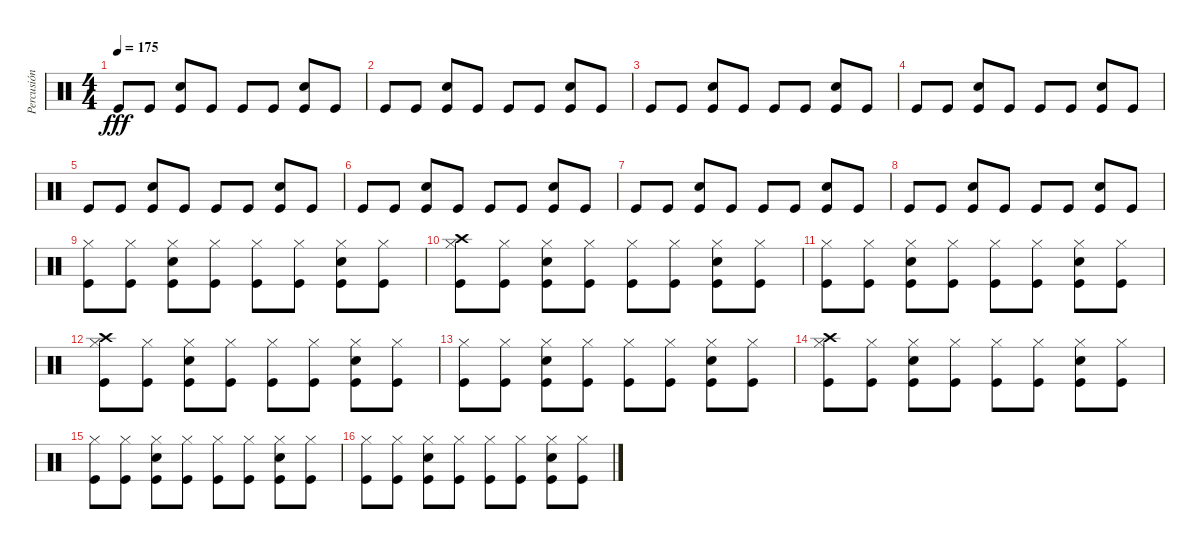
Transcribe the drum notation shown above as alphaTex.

\track ("Percusión" "Percusión") {instrument percussion}
\staff {score}
\articulation defaults
\ts (4 4)
\tempo 175
\clef neutral
\ks c "Kick (hit)".8{dy fff} "Kick (hit)".8
("Snare (hit) 2" "Kick (hit)").8 "Kick (hit)".8 "Kick (hit)".8 "Kick (hit)".8 ("Snare (hit) 2" "Kick (hit)").8 "Kick (hit)".8 |
"Kick (hit)".8 "Kick (hit)".8 ("Snare (hit) 2" "Kick (hit)").8 "Kick (hit)".8 "Kick (hit)".8 "Kick (hit)".8 ("Snare (hit) 2" "Kick (hit)").8 "Kick (hit)".8 |
"Kick (hit)".8 "Kick (hit)".8 ("Snare (hit) 2" "Kick (hit)").8 "Kick (hit)".8 "Kick (hit)".8 "Kick (hit)".8 ("Snare (hit) 2" "Kick (hit)").8 "Kick (hit)".8 |
"Kick (hit)".8 "Kick (hit)".8 ("Snare (hit) 2" "Kick (hit)").8 "Kick (hit)".8 "Kick (hit)".8 "Kick (hit)".8 ("Snare (hit) 2" "Kick (hit)").8 "Kick (hit)".8 |
"Kick (hit)".8 "Kick (hit)".8 ("Snare (hit) 2" "Kick (hit)").8 "Kick (hit)".8 "Kick (hit)".8 "Kick (hit)".8 ("Snare (hit) 2" "Kick (hit)").8 "Kick (hit)".8 |
"Kick (hit)".8 "Kick (hit)".8 ("Snare (hit) 2" "Kick (hit)").8 "Kick (hit)".8 "Kick (hit)".8 "Kick (hit)".8 ("Snare (hit) 2" "Kick (hit)").8 "Kick (hit)".8 |
"Kick (hit)".8 "Kick (hit)".8 ("Snare (hit) 2" "Kick (hit)").8 "Kick (hit)".8 "Kick (hit)".8 "Kick (hit)".8 ("Snare (hit) 2" "Kick (hit)").8 "Kick (hit)".8 |
"Kick (hit)".8 "Kick (hit)".8 ("Snare (hit) 2" "Kick (hit)").8 "Kick (hit)".8 "Kick (hit)".8 "Kick (hit)".8 ("Snare (hit) 2" "Kick (hit)").8 "Kick (hit)".8 |
("Kick (hit)" "Hi-Hat (closed)").8 ("Kick (hit)" "Hi-Hat (closed)").8 ("Snare (hit) 2" "Kick (hit)" "Hi-Hat (closed)").8 ("Kick (hit)" "Hi-Hat (closed)").8 ("Kick (hit)" "Hi-Hat (closed)").8 ("Kick (hit)" "Hi-Hat (closed)").8 ("Snare (hit) 2" "Kick (hit)" "Hi-Hat (closed)").8 ("Kick (hit)" "Hi-Hat (closed)").8 |
("Kick (hit)" "Crash high (hit)" "Hi-Hat (closed)").8 ("Kick (hit)" "Hi-Hat (closed)").8 ("Kick (hit)" "Snare (hit) 2" "Hi-Hat (closed)").8 ("Hi-Hat (closed)" "Kick (hit)").8 ("Kick (hit)" "Hi-Hat (closed)").8 ("Kick (hit)" "Hi-Hat (closed)").8 ("Snare (hit) 2" "Kick (hit)" "Hi-Hat (closed)").8 ("Kick (hit)" "Hi-Hat (closed)").8 |
("Kick (hit)" "Hi-Hat (closed)").8 ("Kick (hit)" "Hi-Hat (closed)").8 ("Snare (hit) 2" "Kick (hit)" "Hi-Hat (closed)").8 ("Kick (hit)" "Hi-Hat (closed)").8 ("Kick (hit)" "Hi-Hat (closed)").8 ("Kick (hit)" "Hi-Hat (closed)").8 ("Snare (hit) 2" "Kick (hit)" "Hi-Hat (closed)").8 ("Kick (hit)" "Hi-Hat (closed)").8 |
("Kick (hit)" "Crash high (hit)" "Hi-Hat (closed)").8 ("Kick (hit)" "Hi-Hat (closed)").8 ("Kick (hit)" "Snare (hit) 2" "Hi-Hat (closed)").8 ("Hi-Hat (closed)" "Kick (hit)").8 ("Kick (hit)" "Hi-Hat (closed)").8 ("Kick (hit)" "Hi-Hat (closed)").8 ("Snare (hit) 2" "Kick (hit)" "Hi-Hat (closed)").8 ("Kick (hit)" "Hi-Hat (closed)").8 |
("Kick (hit)" "Hi-Hat (closed)").8 ("Kick (hit)" "Hi-Hat (closed)").8 ("Snare (hit) 2" "Kick (hit)" "Hi-Hat (closed)").8 ("Kick (hit)" "Hi-Hat (closed)").8 ("Kick (hit)" "Hi-Hat (closed)").8 ("Kick (hit)" "Hi-Hat (closed)").8 ("Snare (hit) 2" "Kick (hit)" "Hi-Hat (closed)").8 ("Kick (hit)" "Hi-Hat (closed)").8 |
("Kick (hit)" "Crash high (hit)" "Hi-Hat (closed)").8 ("Kick (hit)" "Hi-Hat (closed)").8 ("Kick (hit)" "Snare (hit) 2" "Hi-Hat (closed)").8 ("Hi-Hat (closed)" "Kick (hit)").8 ("Kick (hit)" "Hi-Hat (closed)").8 ("Kick (hit)" "Hi-Hat (closed)").8 ("Snare (hit) 2" "Kick (hit)" "Hi-Hat (closed)").8 ("Kick (hit)" "Hi-Hat (closed)").8 |
("Kick (hit)" "Hi-Hat (closed)").8 ("Kick (hit)" "Hi-Hat (closed)").8 ("Snare (hit) 2" "Kick (hit)" "Hi-Hat (closed)").8 ("Kick (hit)" "Hi-Hat (closed)").8 ("Kick (hit)" "Hi-Hat (closed)").8 ("Kick (hit)" "Hi-Hat (closed)").8 ("Snare (hit) 2" "Kick (hit)" "Hi-Hat (closed)").8 ("Kick (hit)" "Hi-Hat (closed)").8 |
("Kick (hit)" "Hi-Hat (closed)").8 ("Kick (hit)" "Hi-Hat (closed)").8 ("Snare (hit) 2" "Kick (hit)" "Hi-Hat (closed)").8 ("Kick (hit)" "Hi-Hat (closed)").8 ("Kick (hit)" "Hi-Hat (closed)").8 ("Kick (hit)" "Hi-Hat (closed)").8 ("Snare (hit) 2" "Kick (hit)" "Hi-Hat (closed)").8 ("Kick (hit)" "Hi-Hat (closed)").8
